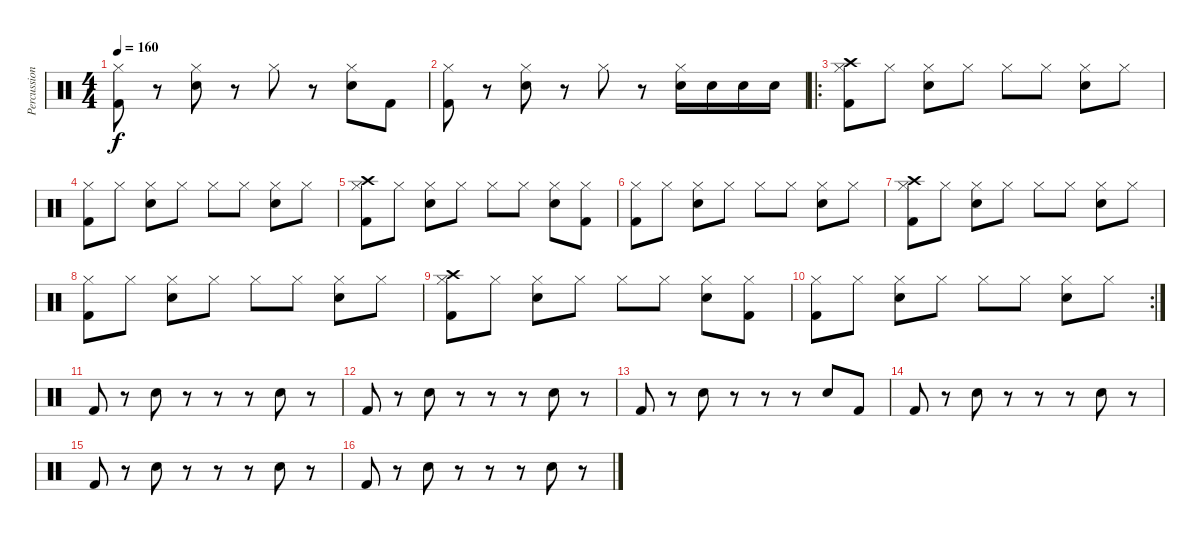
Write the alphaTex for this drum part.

\track ("Percussion" "Percussion") {instrument percussion}
\staff {score}
\articulation defaults
\ts (4 4)
\tempo 160
\clef neutral
\ks c
("Kick (hit) 2" "Hi-Hat (closed)").8{dy f} r.8 ("Snare (hit) 2" "Hi-Hat (closed)").8 r.8 "Hi-Hat (closed)".8 r.8 ("Snare (hit) 2" "Hi-Hat (closed)").8 "Kick (hit) 2".8 |
("Kick (hit) 2" "Hi-Hat (closed)").8 r.8 ("Snare (hit) 2" "Hi-Hat (closed)").8 r.8 "Hi-Hat (closed)".8 r.8 ("Snare (hit) 2" "Hi-Hat (closed)").16 "Snare (hit) 2".16 "Snare (hit) 2".16 "Snare (hit) 2".16 |
\ro
("Kick (hit) 2" "Hi-Hat (closed)" "Crash high (hit)").8 "Hi-Hat (closed)".8 ("Snare (hit) 2" "Hi-Hat (closed)").8 "Hi-Hat (closed)".8 "Hi-Hat (closed)".8 "Hi-Hat (closed)".8 ("Snare (hit) 2" "Hi-Hat (closed)").8 "Hi-Hat (closed)".8 |
("Kick (hit) 2" "Hi-Hat (closed)").8 "Hi-Hat (closed)".8 ("Snare (hit) 2" "Hi-Hat (closed)").8 "Hi-Hat (closed)".8 "Hi-Hat (closed)".8 "Hi-Hat (closed)".8 ("Snare (hit) 2" "Hi-Hat (closed)").8 "Hi-Hat (closed)".8 |
("Kick (hit) 2" "Hi-Hat (closed)" "Crash high (hit)").8 "Hi-Hat (closed)".8 ("Snare (hit) 2" "Hi-Hat (closed)").8 "Hi-Hat (closed)".8 "Hi-Hat (closed)".8 "Hi-Hat (closed)".8 ("Snare (hit) 2" "Hi-Hat (closed)").8 ("Kick (hit) 2" "Hi-Hat (closed)").8 |
("Kick (hit) 2" "Hi-Hat (closed)").8 "Hi-Hat (closed)".8 ("Snare (hit) 2" "Hi-Hat (closed)").8 "Hi-Hat (closed)".8 "Hi-Hat (closed)".8 "Hi-Hat (closed)".8 ("Snare (hit) 2" "Hi-Hat (closed)").8 "Hi-Hat (closed)".8 |
("Kick (hit) 2" "Hi-Hat (closed)" "Crash high (hit)").8 "Hi-Hat (closed)".8 ("Snare (hit) 2" "Hi-Hat (closed)").8 "Hi-Hat (closed)".8 "Hi-Hat (closed)".8 "Hi-Hat (closed)".8 ("Snare (hit) 2" "Hi-Hat (closed)").8 "Hi-Hat (closed)".8 |
("Kick (hit) 2" "Hi-Hat (closed)").8 "Hi-Hat (closed)".8 ("Snare (hit) 2" "Hi-Hat (closed)").8 "Hi-Hat (closed)".8 "Hi-Hat (closed)".8 "Hi-Hat (closed)".8 ("Snare (hit) 2" "Hi-Hat (closed)").8 "Hi-Hat (closed)".8 |
("Kick (hit) 2" "Hi-Hat (closed)" "Crash high (hit)").8 "Hi-Hat (closed)".8 ("Snare (hit) 2" "Hi-Hat (closed)").8 "Hi-Hat (closed)".8 "Hi-Hat (closed)".8 "Hi-Hat (closed)".8 ("Snare (hit) 2" "Hi-Hat (closed)").8 ("Kick (hit) 2" "Hi-Hat (closed)").8 |
\rc 2
("Kick (hit) 2" "Hi-Hat (closed)").8 "Hi-Hat (closed)".8 ("Snare (hit) 2" "Hi-Hat (closed)").8 "Hi-Hat (closed)".8 "Hi-Hat (closed)".8 "Hi-Hat (closed)".8 ("Snare (hit) 2" "Hi-Hat (closed)").8 "Hi-Hat (closed)".8 |
"Kick (hit) 2".8 r.8 "Snare (hit) 2".8 r.8 r.8 r.8 "Snare (hit) 2".8 r.8 |
"Kick (hit) 2".8 r.8 "Snare (hit) 2".8 r.8 r.8 r.8 "Snare (hit) 2".8 r.8 |
"Kick (hit) 2".8 r.8 "Snare (hit) 2".8 r.8 r.8 r.8 "Snare (hit) 2".8 "Kick (hit) 2".8 |
"Kick (hit) 2".8 r.8 "Snare (hit) 2".8 r.8 r.8 r.8 "Snare (hit) 2".8 r.8 |
"Kick (hit) 2".8 r.8 "Snare (hit) 2".8 r.8 r.8 r.8 "Snare (hit) 2".8 r.8 |
"Kick (hit) 2".8 r.8 "Snare (hit) 2".8 r.8 r.8 r.8 "Snare (hit) 2".8 r.8
